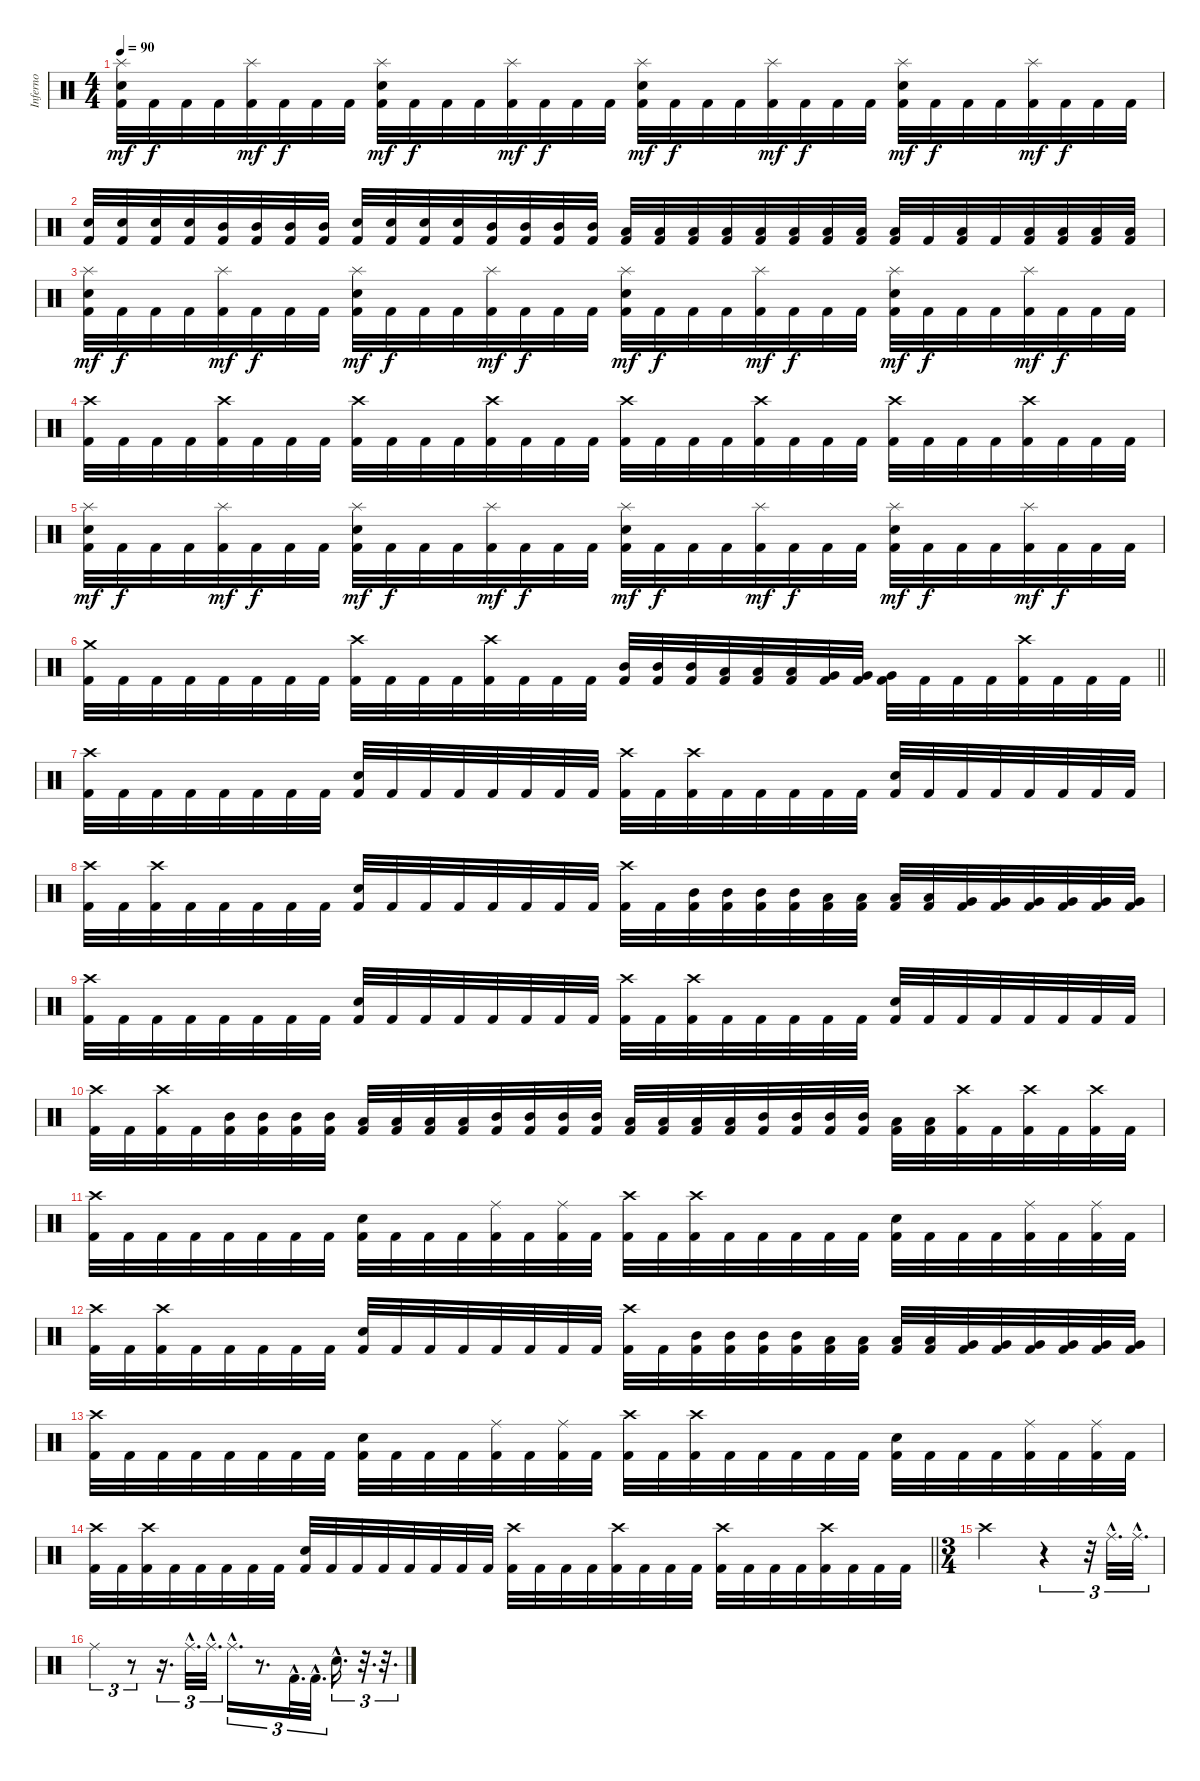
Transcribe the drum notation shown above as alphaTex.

\track ("Inferno" "Inferno") {instrument percussion}
\staff {score}
\articulation defaults
\ts (4 4)
\tempo 90
\clef neutral
\ks c
("Splash (hit)" "Electric Snare (hit)" "Kick (hit) 2").32{dy mf} "Kick (hit) 2".32{dy f} "Kick (hit) 2".32 "Kick (hit) 2".32 ("Splash (hit)" "Kick (hit) 2").32{dy mf} "Kick (hit) 2".32{dy f} "Kick (hit) 2".32 "Kick (hit) 2".32 ("Splash (hit)" "Electric Snare (hit)" "Kick (hit) 2").32{dy mf} "Kick (hit) 2".32{dy f} "Kick (hit) 2".32 "Kick (hit) 2".32 ("Splash (hit)" "Kick (hit) 2").32{dy mf} "Kick (hit) 2".32{dy f} "Kick (hit) 2".32 "Kick (hit) 2".32 ("Splash (hit)" "Electric Snare (hit)" "Kick (hit) 2").32{dy mf} "Kick (hit) 2".32{dy f} "Kick (hit) 2".32 "Kick (hit) 2".32 ("Splash (hit)" "Kick (hit) 2").32{dy mf} "Kick (hit) 2".32{dy f} "Kick (hit) 2".32 "Kick (hit) 2".32 ("Splash (hit)" "Electric Snare (hit)" "Kick (hit) 2").32{dy mf} "Kick (hit) 2".32{dy f} "Kick (hit) 2".32 "Kick (hit) 2".32 ("Splash (hit)" "Kick (hit) 2").32{dy mf} "Kick (hit) 2".32{dy f} "Kick (hit) 2".32 "Kick (hit) 2".32 |
("Electric Snare (hit)" "Kick (hit) 2").32 ("Electric Snare (hit)" "Kick (hit) 2").32 ("Electric Snare (hit)" "Kick (hit) 2").32 ("Electric Snare (hit)" "Kick (hit) 2").32 ("Mid Tom (hit)" "Kick (hit) 2").32 ("Mid Tom (hit)" "Kick (hit) 2").32 ("Mid Tom (hit)" "Kick (hit) 2").32 ("Mid Tom (hit)" "Kick (hit) 2").32 ("Electric Snare (hit)" "Kick (hit) 2").32 ("Electric Snare (hit)" "Kick (hit) 2").32 ("Electric Snare (hit)" "Kick (hit) 2").32 ("Electric Snare (hit)" "Kick (hit) 2").32 ("Mid Tom (hit)" "Kick (hit) 2").32 ("Mid Tom (hit)" "Kick (hit) 2").32 ("Mid Tom (hit)" "Kick (hit) 2").32 ("Mid Tom (hit)" "Kick (hit) 2").32 ("Low Tom (hit)" "Kick (hit) 2").32 ("Low Tom (hit)" "Kick (hit) 2").32 ("Low Tom (hit)" "Kick (hit) 2").32 ("Low Tom (hit)" "Kick (hit) 2").32 ("Low Tom (hit)" "Kick (hit) 2").32 ("Low Tom (hit)" "Kick (hit) 2").32 ("Low Tom (hit)" "Kick (hit) 2").32 ("Low Tom (hit)" "Kick (hit) 2").32 ("Low Tom (hit)" "Kick (hit) 2").32 "Kick (hit) 2".32 ("Low Tom (hit)" "Kick (hit) 2").32 "Kick (hit) 2".32 ("Low Tom (hit)" "Kick (hit) 2").32 ("Low Tom (hit)" "Kick (hit) 2").32 ("Low Tom (hit)" "Kick (hit) 2").32 ("Low Tom (hit)" "Kick (hit) 2").32 |
("Splash (hit)" "Electric Snare (hit)" "Kick (hit) 2").32{dy mf} "Kick (hit) 2".32{dy f} "Kick (hit) 2".32 "Kick (hit) 2".32 ("Splash (hit)" "Kick (hit) 2").32{dy mf} "Kick (hit) 2".32{dy f} "Kick (hit) 2".32 "Kick (hit) 2".32 ("Splash (hit)" "Electric Snare (hit)" "Kick (hit) 2").32{dy mf} "Kick (hit) 2".32{dy f} "Kick (hit) 2".32 "Kick (hit) 2".32 ("Splash (hit)" "Kick (hit) 2").32{dy mf} "Kick (hit) 2".32{dy f} "Kick (hit) 2".32 "Kick (hit) 2".32 ("Splash (hit)" "Electric Snare (hit)" "Kick (hit) 2").32{dy mf} "Kick (hit) 2".32{dy f} "Kick (hit) 2".32 "Kick (hit) 2".32 ("Splash (hit)" "Kick (hit) 2").32{dy mf} "Kick (hit) 2".32{dy f} "Kick (hit) 2".32 "Kick (hit) 2".32 ("Splash (hit)" "Electric Snare (hit)" "Kick (hit) 2").32{dy mf} "Kick (hit) 2".32{dy f} "Kick (hit) 2".32 "Kick (hit) 2".32 ("Splash (hit)" "Kick (hit) 2").32{dy mf} "Kick (hit) 2".32{dy f} "Kick (hit) 2".32 "Kick (hit) 2".32 |
("Crash high (hit)" "Kick (hit) 2").32 "Kick (hit) 2".32 "Kick (hit) 2".32 "Kick (hit) 2".32 ("Crash high (hit)" "Kick (hit) 2").32 "Kick (hit) 2".32 "Kick (hit) 2".32 "Kick (hit) 2".32 ("Crash high (hit)" "Kick (hit) 2").32 "Kick (hit) 2".32 "Kick (hit) 2".32 "Kick (hit) 2".32 ("Crash high (hit)" "Kick (hit) 2").32 "Kick (hit) 2".32 "Kick (hit) 2".32 "Kick (hit) 2".32 ("Crash high (hit)" "Kick (hit) 2").32 "Kick (hit) 2".32 "Kick (hit) 2".32 "Kick (hit) 2".32 ("Crash high (hit)" "Kick (hit) 2").32 "Kick (hit) 2".32 "Kick (hit) 2".32 "Kick (hit) 2".32 ("Crash high (hit)" "Kick (hit) 2").32 "Kick (hit) 2".32 "Kick (hit) 2".32 "Kick (hit) 2".32 ("Crash high (hit)" "Kick (hit) 2").32 "Kick (hit) 2".32 "Kick (hit) 2".32 "Kick (hit) 2".32 |
("Splash (hit)" "Electric Snare (hit)" "Kick (hit) 2").32{dy mf} "Kick (hit) 2".32{dy f} "Kick (hit) 2".32 "Kick (hit) 2".32 ("Splash (hit)" "Kick (hit) 2").32{dy mf} "Kick (hit) 2".32{dy f} "Kick (hit) 2".32 "Kick (hit) 2".32 ("Splash (hit)" "Electric Snare (hit)" "Kick (hit) 2").32{dy mf} "Kick (hit) 2".32{dy f} "Kick (hit) 2".32 "Kick (hit) 2".32 ("Splash (hit)" "Kick (hit) 2").32{dy mf} "Kick (hit) 2".32{dy f} "Kick (hit) 2".32 "Kick (hit) 2".32 ("Splash (hit)" "Electric Snare (hit)" "Kick (hit) 2").32{dy mf} "Kick (hit) 2".32{dy f} "Kick (hit) 2".32 "Kick (hit) 2".32 ("Splash (hit)" "Kick (hit) 2").32{dy mf} "Kick (hit) 2".32{dy f} "Kick (hit) 2".32 "Kick (hit) 2".32 ("Splash (hit)" "Electric Snare (hit)" "Kick (hit) 2").32{dy mf} "Kick (hit) 2".32{dy f} "Kick (hit) 2".32 "Kick (hit) 2".32 ("Splash (hit)" "Kick (hit) 2").32{dy mf} "Kick (hit) 2".32{dy f} "Kick (hit) 2".32 "Kick (hit) 2".32 |
\barLineRight lightlight
("Crash medium (hit)" "Kick (hit) 2").32 "Kick (hit) 2".32 "Kick (hit) 2".32 "Kick (hit) 2".32 "Kick (hit) 2".32 "Kick (hit) 2".32 "Kick (hit) 2".32 "Kick (hit) 2".32 ("Crash high (hit)" "Kick (hit) 2").32 "Kick (hit) 2".32 "Kick (hit) 2".32 "Kick (hit) 2".32 ("Crash high (hit)" "Kick (hit) 2").32 "Kick (hit) 2".32 "Kick (hit) 2".32 "Kick (hit) 2".32 ("Mid Tom (hit)" "Kick (hit) 2").32 ("Mid Tom (hit)" "Kick (hit) 2").32 ("Mid Tom (hit)" "Kick (hit) 2").32 ("Low Tom (hit)" "Kick (hit) 2").32 ("Low Tom (hit)" "Kick (hit) 2").32 ("Low Tom (hit)" "Kick (hit) 2").32 ("Very Low Tom (hit)" "Kick (hit) 2").32 ("Very Low Tom (hit)" "Kick (hit) 2").32 ("Very Low Tom (hit)" "Kick (hit) 2").32 "Kick (hit) 2".32 "Kick (hit) 2".32 "Kick (hit) 2".32 ("Crash high (hit)" "Kick (hit) 2").32 "Kick (hit) 2".32 "Kick (hit) 2".32 "Kick (hit) 2".32 |
("Crash high (hit)" "Kick (hit) 2").32 "Kick (hit) 2".32 "Kick (hit) 2".32 "Kick (hit) 2".32 "Kick (hit) 2".32 "Kick (hit) 2".32 "Kick (hit) 2".32 "Kick (hit) 2".32 ("Electric Snare (hit)" "Kick (hit) 2").32 "Kick (hit) 2".32 "Kick (hit) 2".32 "Kick (hit) 2".32 "Kick (hit) 2".32 "Kick (hit) 2".32 "Kick (hit) 2".32 "Kick (hit) 2".32 ("Crash high (hit)" "Kick (hit) 2").32 "Kick (hit) 2".32 ("Crash high (hit)" "Kick (hit) 2").32 "Kick (hit) 2".32 "Kick (hit) 2".32 "Kick (hit) 2".32 "Kick (hit) 2".32 "Kick (hit) 2".32 ("Electric Snare (hit)" "Kick (hit) 2").32 "Kick (hit) 2".32 "Kick (hit) 2".32 "Kick (hit) 2".32 "Kick (hit) 2".32 "Kick (hit) 2".32 "Kick (hit) 2".32 "Kick (hit) 2".32 |
("Crash high (hit)" "Kick (hit) 2").32 "Kick (hit) 2".32 ("Crash high (hit)" "Kick (hit) 2").32 "Kick (hit) 2".32 "Kick (hit) 2".32 "Kick (hit) 2".32 "Kick (hit) 2".32 "Kick (hit) 2".32 ("Electric Snare (hit)" "Kick (hit) 2").32 "Kick (hit) 2".32 "Kick (hit) 2".32 "Kick (hit) 2".32 "Kick (hit) 2".32 "Kick (hit) 2".32 "Kick (hit) 2".32 "Kick (hit) 2".32 ("Crash high (hit)" "Kick (hit) 2").32 "Kick (hit) 2".32 ("Mid Tom (hit)" "Kick (hit) 2").32 ("Mid Tom (hit)" "Kick (hit) 2").32 ("Mid Tom (hit)" "Kick (hit) 2").32 ("Mid Tom (hit)" "Kick (hit) 2").32 ("Low Tom (hit)" "Kick (hit) 2").32 ("Low Tom (hit)" "Kick (hit) 2").32 ("Low Tom (hit)" "Kick (hit) 2").32 ("Low Tom (hit)" "Kick (hit) 2").32 ("Very Low Tom (hit)" "Kick (hit) 2").32 ("Very Low Tom (hit)" "Kick (hit) 2").32 ("Very Low Tom (hit)" "Kick (hit) 2").32 ("Very Low Tom (hit)" "Kick (hit) 2").32 ("Very Low Tom (hit)" "Kick (hit) 2").32 ("Very Low Tom (hit)" "Kick (hit) 2").32 |
("Crash high (hit)" "Kick (hit) 2").32 "Kick (hit) 2".32 "Kick (hit) 2".32 "Kick (hit) 2".32 "Kick (hit) 2".32 "Kick (hit) 2".32 "Kick (hit) 2".32 "Kick (hit) 2".32 ("Electric Snare (hit)" "Kick (hit) 2").32 "Kick (hit) 2".32 "Kick (hit) 2".32 "Kick (hit) 2".32 "Kick (hit) 2".32 "Kick (hit) 2".32 "Kick (hit) 2".32 "Kick (hit) 2".32 ("Crash high (hit)" "Kick (hit) 2").32 "Kick (hit) 2".32 ("Crash high (hit)" "Kick (hit) 2").32 "Kick (hit) 2".32 "Kick (hit) 2".32 "Kick (hit) 2".32 "Kick (hit) 2".32 "Kick (hit) 2".32 ("Electric Snare (hit)" "Kick (hit) 2").32 "Kick (hit) 2".32 "Kick (hit) 2".32 "Kick (hit) 2".32 "Kick (hit) 2".32 "Kick (hit) 2".32 "Kick (hit) 2".32 "Kick (hit) 2".32 |
("Crash high (hit)" "Kick (hit) 2").32 "Kick (hit) 2".32 ("Crash high (hit)" "Kick (hit) 2").32 "Kick (hit) 2".32 ("Mid Tom (hit)" "Kick (hit) 2").32 ("Mid Tom (hit)" "Kick (hit) 2").32 ("Mid Tom (hit)" "Kick (hit) 2").32 ("Mid Tom (hit)" "Kick (hit) 2").32 ("Low Tom (hit)" "Kick (hit) 2").32 ("Low Tom (hit)" "Kick (hit) 2").32 ("Low Tom (hit)" "Kick (hit) 2").32 ("Low Tom (hit)" "Kick (hit) 2").32 ("Mid Tom (hit)" "Kick (hit) 2").32 ("Mid Tom (hit)" "Kick (hit) 2").32 ("Mid Tom (hit)" "Kick (hit) 2").32 ("Mid Tom (hit)" "Kick (hit) 2").32 ("Low Tom (hit)" "Kick (hit) 2").32 ("Low Tom (hit)" "Kick (hit) 2").32 ("Low Tom (hit)" "Kick (hit) 2").32 ("Low Tom (hit)" "Kick (hit) 2").32 ("Mid Tom (hit)" "Kick (hit) 2").32 ("Mid Tom (hit)" "Kick (hit) 2").32 ("Mid Tom (hit)" "Kick (hit) 2").32 ("Mid Tom (hit)" "Kick (hit) 2").32 ("Low Tom (hit)" "Kick (hit) 2").32 ("Low Tom (hit)" "Kick (hit) 2").32 ("Crash high (hit)" "Kick (hit) 2").32 "Kick (hit) 2".32 ("Crash high (hit)" "Kick (hit) 2").32 "Kick (hit) 2".32 ("Crash high (hit)" "Kick (hit) 2").32 "Kick (hit) 2".32 |
("Crash high (hit)" "Kick (hit) 2").32 "Kick (hit) 2".32 "Kick (hit) 2".32 "Kick (hit) 2".32 "Kick (hit) 2".32 "Kick (hit) 2".32 "Kick (hit) 2".32 "Kick (hit) 2".32 ("Electric Snare (hit)" "Kick (hit) 2").32 "Kick (hit) 2".32 "Kick (hit) 2".32 "Kick (hit) 2".32 ("Ride (middle)" "Kick (hit) 2").32 "Kick (hit) 2".32 ("Ride (middle)" "Kick (hit) 2").32 "Kick (hit) 2".32 ("Crash high (hit)" "Kick (hit) 2").32 "Kick (hit) 2".32 ("Crash high (hit)" "Kick (hit) 2").32 "Kick (hit) 2".32 "Kick (hit) 2".32 "Kick (hit) 2".32 "Kick (hit) 2".32 "Kick (hit) 2".32 ("Electric Snare (hit)" "Kick (hit) 2").32 "Kick (hit) 2".32 "Kick (hit) 2".32 "Kick (hit) 2".32 ("Ride (middle)" "Kick (hit) 2").32 "Kick (hit) 2".32 ("Ride (middle)" "Kick (hit) 2").32 "Kick (hit) 2".32 |
("Crash high (hit)" "Kick (hit) 2").32 "Kick (hit) 2".32 ("Crash high (hit)" "Kick (hit) 2").32 "Kick (hit) 2".32 "Kick (hit) 2".32 "Kick (hit) 2".32 "Kick (hit) 2".32 "Kick (hit) 2".32 ("Electric Snare (hit)" "Kick (hit) 2").32 "Kick (hit) 2".32 "Kick (hit) 2".32 "Kick (hit) 2".32 "Kick (hit) 2".32 "Kick (hit) 2".32 "Kick (hit) 2".32 "Kick (hit) 2".32 ("Crash high (hit)" "Kick (hit) 2").32 "Kick (hit) 2".32 ("Mid Tom (hit)" "Kick (hit) 2").32 ("Mid Tom (hit)" "Kick (hit) 2").32 ("Mid Tom (hit)" "Kick (hit) 2").32 ("Mid Tom (hit)" "Kick (hit) 2").32 ("Low Tom (hit)" "Kick (hit) 2").32 ("Low Tom (hit)" "Kick (hit) 2").32 ("Low Tom (hit)" "Kick (hit) 2").32 ("Low Tom (hit)" "Kick (hit) 2").32 ("Very Low Tom (hit)" "Kick (hit) 2").32 ("Very Low Tom (hit)" "Kick (hit) 2").32 ("Very Low Tom (hit)" "Kick (hit) 2").32 ("Very Low Tom (hit)" "Kick (hit) 2").32 ("Very Low Tom (hit)" "Kick (hit) 2").32 ("Very Low Tom (hit)" "Kick (hit) 2").32 |
("Crash high (hit)" "Kick (hit) 2").32 "Kick (hit) 2".32 "Kick (hit) 2".32 "Kick (hit) 2".32 "Kick (hit) 2".32 "Kick (hit) 2".32 "Kick (hit) 2".32 "Kick (hit) 2".32 ("Electric Snare (hit)" "Kick (hit) 2").32 "Kick (hit) 2".32 "Kick (hit) 2".32 "Kick (hit) 2".32 ("Ride (middle)" "Kick (hit) 2").32 "Kick (hit) 2".32 ("Ride (middle)" "Kick (hit) 2").32 "Kick (hit) 2".32 ("Crash high (hit)" "Kick (hit) 2").32 "Kick (hit) 2".32 ("Crash high (hit)" "Kick (hit) 2").32 "Kick (hit) 2".32 "Kick (hit) 2".32 "Kick (hit) 2".32 "Kick (hit) 2".32 "Kick (hit) 2".32 ("Electric Snare (hit)" "Kick (hit) 2").32 "Kick (hit) 2".32 "Kick (hit) 2".32 "Kick (hit) 2".32 ("Ride (middle)" "Kick (hit) 2").32 "Kick (hit) 2".32 ("Ride (middle)" "Kick (hit) 2").32 "Kick (hit) 2".32 |
\barLineRight lightlight
("Crash high (hit)" "Kick (hit) 2").32 "Kick (hit) 2".32 ("Crash high (hit)" "Kick (hit) 2").32 "Kick (hit) 2".32 "Kick (hit) 2".32 "Kick (hit) 2".32 "Kick (hit) 2".32 "Kick (hit) 2".32 ("Electric Snare (hit)" "Kick (hit) 2").32 "Kick (hit) 2".32 "Kick (hit) 2".32 "Kick (hit) 2".32 "Kick (hit) 2".32 "Kick (hit) 2".32 "Kick (hit) 2".32 "Kick (hit) 2".32 ("Crash high (hit)" "Kick (hit) 2").32 "Kick (hit) 2".32 "Kick (hit) 2".32 "Kick (hit) 2".32 ("Crash high (hit)" "Kick (hit) 2").32 "Kick (hit) 2".32 "Kick (hit) 2".32 "Kick (hit) 2".32 ("Crash high (hit)" "Kick (hit) 2").32 "Kick (hit) 2".32 "Kick (hit) 2".32 "Kick (hit) 2".32 ("Crash high (hit)" "Kick (hit) 2").32 "Kick (hit) 2".32 "Kick (hit) 2".32 "Kick (hit) 2".32 |
\ts (3 4)
"Crash high (hit)".2 r.4{tu (3 2)} r.32{tu (3 2)} "Ride (middle)"{hac}.32{d tu (3 2)} "Ride (middle)"{hac}.32{d tu (3 2)} |
"Ride (middle)".4{tu (3 2)} r.8{tu (3 2)} r.16{d tu (3 2)} "Ride (middle)"{hac}.32{d tu (3 2)} "Ride (middle)"{hac}.32{d tu (3 2)} "Ride (middle)"{hac}.16{d tu (3 2)} r.8{d tu (3 2)} "Kick (hit) 2"{hac}.32{d tu (3 2)} "Kick (hit) 2"{hac}.32{d tu (3 2)} "Electric Snare (hit)"{hac}.16{d tu (3 2)} r.32{d tu (3 2)} r.32{d tu (3 2)}
